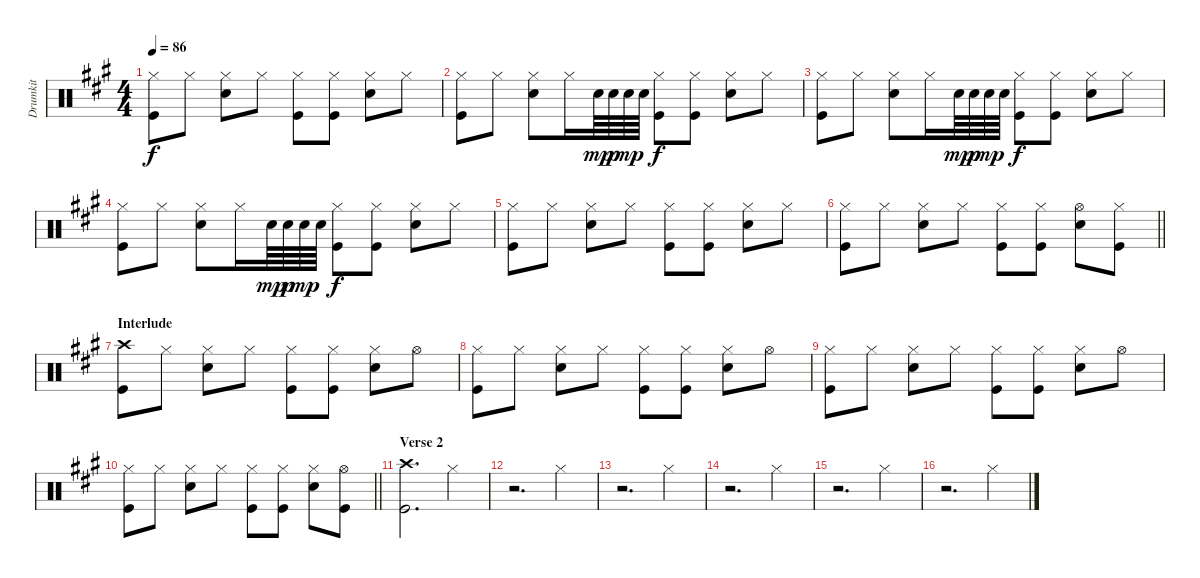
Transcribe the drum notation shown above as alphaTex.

\track ("Drumkit" "Drumkit") {instrument percussion}
\staff {score}
\articulation defaults
\ts (4 4)
\tempo 86
\clef neutral
\ks a
("Kick (hit)" "Hi-Hat (closed)").8{dy f} "Hi-Hat (closed)".8 ("Hi-Hat (closed)" "Snare (hit) 2").8 "Hi-Hat (closed)".8 ("Kick (hit)" "Hi-Hat (closed)").8 ("Kick (hit)" "Hi-Hat (closed)").8 ("Snare (hit) 2" "Hi-Hat (closed)").8 "Hi-Hat (closed)".8 |
("Kick (hit)" "Hi-Hat (closed)").8 "Hi-Hat (closed)".8 ("Hi-Hat (closed)" "Snare (hit) 2").8 "Hi-Hat (closed)".16 "Snare (hit) 2".64{dy mp} "Snare (hit) 2".64{dy p} "Snare (hit) 2".64{dy mp} "Snare (hit) 2".64 ("Kick (hit)" "Hi-Hat (closed)").8{dy f} ("Kick (hit)" "Hi-Hat (closed)").8 ("Snare (hit) 2" "Hi-Hat (closed)").8 "Hi-Hat (closed)".8 |
("Kick (hit)" "Hi-Hat (closed)").8 "Hi-Hat (closed)".8 ("Hi-Hat (closed)" "Snare (hit) 2").8 "Hi-Hat (closed)".16 "Snare (hit) 2".64{dy mp} "Snare (hit) 2".64{dy p} "Snare (hit) 2".64{dy mp} "Snare (hit) 2".64 ("Kick (hit)" "Hi-Hat (closed)").8{dy f} ("Kick (hit)" "Hi-Hat (closed)").8 ("Snare (hit) 2" "Hi-Hat (closed)").8 "Hi-Hat (closed)".8 |
("Kick (hit)" "Hi-Hat (closed)").8 "Hi-Hat (closed)".8 ("Hi-Hat (closed)" "Snare (hit) 2").8 "Hi-Hat (closed)".16 "Snare (hit) 2".64{dy mp} "Snare (hit) 2".64{dy p} "Snare (hit) 2".64{dy mp} "Snare (hit) 2".64 ("Kick (hit)" "Hi-Hat (closed)").8{dy f} ("Kick (hit)" "Hi-Hat (closed)").8 ("Snare (hit) 2" "Hi-Hat (closed)").8 "Hi-Hat (closed)".8 |
("Kick (hit)" "Hi-Hat (closed)").8 "Hi-Hat (closed)".8 ("Hi-Hat (closed)" "Snare (hit) 2").8 "Hi-Hat (closed)".8 ("Kick (hit)" "Hi-Hat (closed)").8 ("Kick (hit)" "Hi-Hat (closed)").8 ("Snare (hit) 2" "Hi-Hat (closed)").8 "Hi-Hat (closed)".8 |
\barLineRight lightlight
("Kick (hit)" "Hi-Hat (closed)").8 "Hi-Hat (closed)".8 ("Hi-Hat (closed)" "Snare (hit) 2").8 "Hi-Hat (closed)".8 ("Kick (hit)" "Hi-Hat (closed)").8 ("Kick (hit)" "Hi-Hat (closed)").8 ("Snare (hit) 2" "Hi-Hat (open)").8 ("Hi-Hat (closed)" "Kick (hit)").8 |
\section ("" "Interlude")
("Kick (hit)" "Crash high (hit)").8 "Hi-Hat (closed)".8 ("Hi-Hat (closed)" "Snare (hit) 2").8 "Hi-Hat (closed)".8 ("Kick (hit)" "Hi-Hat (closed)").8 ("Kick (hit)" "Hi-Hat (closed)").8 ("Snare (hit) 2" "Hi-Hat (closed)").8 "Hi-Hat (open)".8 |
("Kick (hit)" "Hi-Hat (closed)").8 "Hi-Hat (closed)".8 ("Hi-Hat (closed)" "Snare (hit) 2").8 "Hi-Hat (closed)".8 ("Kick (hit)" "Hi-Hat (closed)").8 ("Kick (hit)" "Hi-Hat (closed)").8 ("Snare (hit) 2" "Hi-Hat (closed)").8 "Hi-Hat (open)".8 |
("Kick (hit)" "Hi-Hat (closed)").8 "Hi-Hat (closed)".8 ("Hi-Hat (closed)" "Snare (hit) 2").8 "Hi-Hat (closed)".8 ("Kick (hit)" "Hi-Hat (closed)").8 ("Kick (hit)" "Hi-Hat (closed)").8 ("Snare (hit) 2" "Hi-Hat (closed)").8 "Hi-Hat (open)".8 |
\barLineRight lightlight
("Kick (hit)" "Hi-Hat (closed)").8 "Hi-Hat (closed)".8 ("Hi-Hat (closed)" "Snare (hit) 2").8 "Hi-Hat (closed)".8 ("Kick (hit)" "Hi-Hat (closed)").8 ("Kick (hit)" "Hi-Hat (closed)").8 ("Snare (hit) 2" "Hi-Hat (closed)").8 ("Hi-Hat (open)" "Kick (hit)").8 |
\section ("" "Verse 2")
("Kick (hit)" "Crash high (hit)").2{d} "Hi-Hat (closed)".4 |
r.2{d} "Hi-Hat (closed)".4 |
r.2{d} "Hi-Hat (closed)".4 |
r.2{d} "Hi-Hat (closed)".4 |
r.2{d} "Hi-Hat (closed)".4 |
r.2{d} "Hi-Hat (closed)".4
